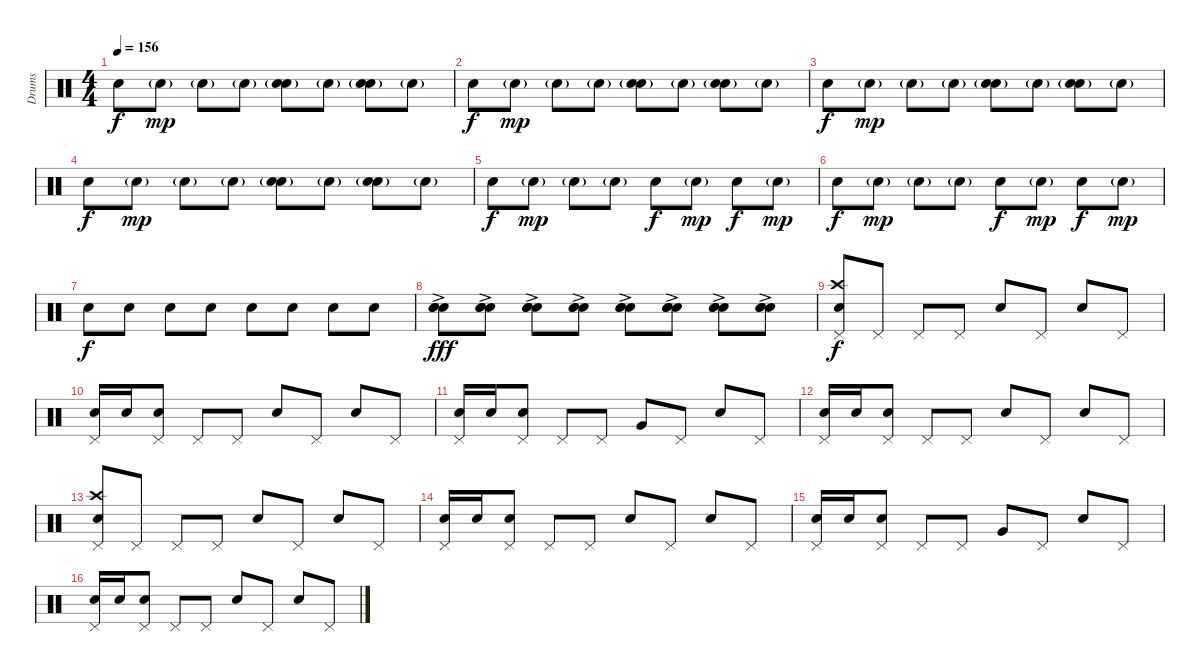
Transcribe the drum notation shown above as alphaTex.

\track ("Drums" "Drums") {instrument percussion}
\staff {score}
\articulation defaults
\ts (4 4)
\tempo 156
\clef neutral
\ks c "Electric Snare (hit)".8{dy f} "Electric Snare (hit)"{g}.8{dy mp} "Electric Snare (hit)"{g}.8 "Electric Snare (hit)"{g}.8
("Electric Snare (hit)" "Snare (hit) 2"{g}).8 "Electric Snare (hit)"{g}.8 ("Electric Snare (hit)" "Snare (hit) 2"{g}).8 "Electric Snare (hit)"{g}.8 |
"Electric Snare (hit)".8{dy f} "Electric Snare (hit)"{g}.8{dy mp} "Electric Snare (hit)"{g}.8 "Electric Snare (hit)"{g}.8 ("Electric Snare (hit)" "Snare (hit) 2"{g}).8 "Electric Snare (hit)"{g}.8 ("Electric Snare (hit)" "Snare (hit) 2"{g}).8 "Electric Snare (hit)"{g}.8 |
"Electric Snare (hit)".8{dy f} "Electric Snare (hit)"{g}.8{dy mp} "Electric Snare (hit)"{g}.8 "Electric Snare (hit)"{g}.8 ("Electric Snare (hit)" "Snare (hit) 2"{g}).8 "Electric Snare (hit)"{g}.8 ("Electric Snare (hit)" "Snare (hit) 2"{g}).8 "Electric Snare (hit)"{g}.8 |
"Electric Snare (hit)".8{dy f} "Electric Snare (hit)"{g}.8{dy mp} "Electric Snare (hit)"{g}.8 "Electric Snare (hit)"{g}.8 ("Electric Snare (hit)" "Snare (hit) 2"{g}).8 "Electric Snare (hit)"{g}.8 ("Electric Snare (hit)" "Snare (hit) 2"{g}).8 "Electric Snare (hit)"{g}.8 |
"Electric Snare (hit)".8{dy f} "Electric Snare (hit)"{g}.8{dy mp} "Electric Snare (hit)"{g}.8 "Electric Snare (hit)"{g}.8 "Electric Snare (hit)".8{dy f} "Electric Snare (hit)"{g}.8{dy mp} "Electric Snare (hit)".8{dy f} "Electric Snare (hit)"{g}.8{dy mp} |
"Electric Snare (hit)".8{dy f} "Electric Snare (hit)"{g}.8{dy mp} "Electric Snare (hit)"{g}.8 "Electric Snare (hit)"{g}.8 "Electric Snare (hit)".8{dy f} "Electric Snare (hit)"{g}.8{dy mp} "Electric Snare (hit)".8{dy f} "Electric Snare (hit)"{g}.8{dy mp} |
"Electric Snare (hit)".8{dy f} "Electric Snare (hit)".8 "Electric Snare (hit)".8 "Electric Snare (hit)".8 "Electric Snare (hit)".8 "Electric Snare (hit)".8 "Electric Snare (hit)".8 "Electric Snare (hit)".8 |
("Electric Snare (hit)"{ac} "Electric Snare (hit)" "Electric Snare (hit)").8{dy fff} ("Electric Snare (hit)"{ac} "Electric Snare (hit)" "Electric Snare (hit)").8 ("Electric Snare (hit)"{ac} "Electric Snare (hit)" "Electric Snare (hit)").8 ("Electric Snare (hit)"{ac} "Electric Snare (hit)" "Electric Snare (hit)").8 ("Electric Snare (hit)"{ac} "Electric Snare (hit)" "Electric Snare (hit)").8 ("Electric Snare (hit)"{ac} "Electric Snare (hit)" "Electric Snare (hit)").8 ("Electric Snare (hit)"{ac} "Electric Snare (hit)" "Electric Snare (hit)").8 ("Electric Snare (hit)"{ac} "Electric Snare (hit)" "Electric Snare (hit)").8 |
("Electric Snare (hit)" "Crash high (hit)" "Pedal Hi-Hat (hit)").8{dy f volume 13} "Pedal Hi-Hat (hit)".8 "Pedal Hi-Hat (hit)".8 "Pedal Hi-Hat (hit)".8 "Electric Snare (hit)".8 "Pedal Hi-Hat (hit)".8 "Electric Snare (hit)".8 "Pedal Hi-Hat (hit)".8 |
("Electric Snare (hit)" "Pedal Hi-Hat (hit)").16 "Electric Snare (hit)".16 ("Electric Snare (hit)" "Pedal Hi-Hat (hit)").8 "Pedal Hi-Hat (hit)".8 "Pedal Hi-Hat (hit)".8 "Electric Snare (hit)".8 "Pedal Hi-Hat (hit)".8 "Electric Snare (hit)".8 "Pedal Hi-Hat (hit)".8 |
("Electric Snare (hit)" "Pedal Hi-Hat (hit)").16 "Electric Snare (hit)".16 ("Electric Snare (hit)" "Pedal Hi-Hat (hit)").8 "Pedal Hi-Hat (hit)".8 "Pedal Hi-Hat (hit)".8 "Very Low Tom (hit)".8 "Pedal Hi-Hat (hit)".8 "Electric Snare (hit)".8 "Pedal Hi-Hat (hit)".8 |
("Electric Snare (hit)" "Pedal Hi-Hat (hit)").16 "Electric Snare (hit)".16 ("Electric Snare (hit)" "Pedal Hi-Hat (hit)").8 "Pedal Hi-Hat (hit)".8 "Pedal Hi-Hat (hit)".8 "Electric Snare (hit)".8 "Pedal Hi-Hat (hit)".8 "Electric Snare (hit)".8 "Pedal Hi-Hat (hit)".8 |
("Electric Snare (hit)" "Crash high (hit)" "Pedal Hi-Hat (hit)").8{volume 13} "Pedal Hi-Hat (hit)".8 "Pedal Hi-Hat (hit)".8 "Pedal Hi-Hat (hit)".8 "Electric Snare (hit)".8 "Pedal Hi-Hat (hit)".8 "Electric Snare (hit)".8 "Pedal Hi-Hat (hit)".8 |
("Electric Snare (hit)" "Pedal Hi-Hat (hit)").16 "Electric Snare (hit)".16 ("Electric Snare (hit)" "Pedal Hi-Hat (hit)").8 "Pedal Hi-Hat (hit)".8 "Pedal Hi-Hat (hit)".8 "Electric Snare (hit)".8 "Pedal Hi-Hat (hit)".8 "Electric Snare (hit)".8 "Pedal Hi-Hat (hit)".8 |
("Electric Snare (hit)" "Pedal Hi-Hat (hit)").16 "Electric Snare (hit)".16 ("Electric Snare (hit)" "Pedal Hi-Hat (hit)").8 "Pedal Hi-Hat (hit)".8 "Pedal Hi-Hat (hit)".8 "Very Low Tom (hit)".8 "Pedal Hi-Hat (hit)".8 "Electric Snare (hit)".8 "Pedal Hi-Hat (hit)".8 |
("Electric Snare (hit)" "Pedal Hi-Hat (hit)").16 "Electric Snare (hit)".16 ("Electric Snare (hit)" "Pedal Hi-Hat (hit)").8 "Pedal Hi-Hat (hit)".8 "Pedal Hi-Hat (hit)".8 "Electric Snare (hit)".8 "Pedal Hi-Hat (hit)".8 "Electric Snare (hit)".8 "Pedal Hi-Hat (hit)".8
